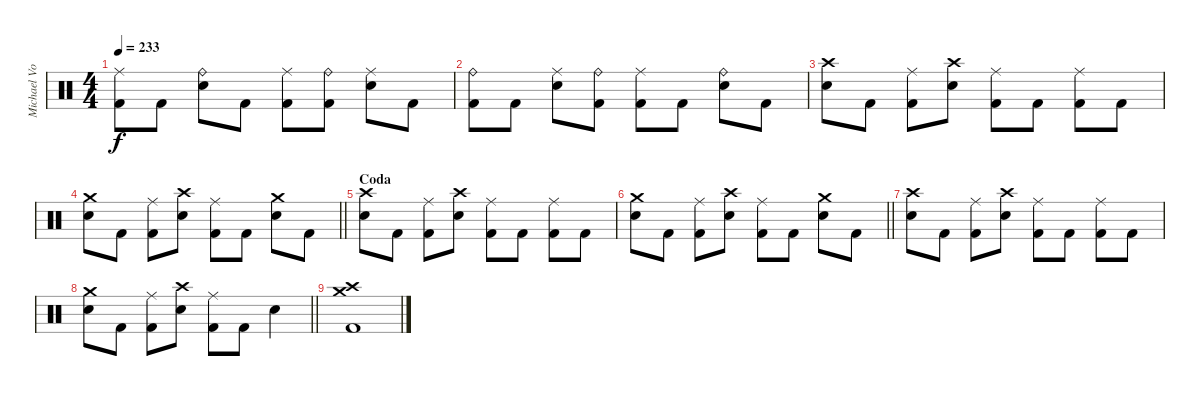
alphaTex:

\track ("Michael Von Knorring" "Michael Vo") {instrument percussion}
\staff {score}
\articulation defaults
\ts (4 4)
\tempo 233
\clef neutral
\ks c
("Ride (middle)" "Kick (hit) 2").8{dy f} "Kick (hit) 2".8 ("Ride (bell)" "Snare (hit) 2").8 "Kick (hit) 2".8 ("Ride (middle)" "Kick (hit) 2").8 ("Ride (bell)" "Kick (hit) 2").8 ("Ride (middle)" "Snare (hit) 2").8 "Kick (hit) 2".8 |
("Ride (bell)" "Kick (hit) 2").8 "Kick (hit) 2".8 ("Ride (middle)" "Snare (hit) 2").8 ("Ride (bell)" "Kick (hit) 2").8 ("Ride (middle)" "Kick (hit) 2").8 "Kick (hit) 2".8 ("Ride (bell)" "Snare (hit) 2").8 "Kick (hit) 2".8 |
("Crash high (hit)" "Snare (hit) 2").8 "Kick (hit) 2".8 ("Ride (middle)" "Kick (hit) 2").8 ("Crash high (hit)" "Snare (hit) 2").8 ("Ride (middle)" "Kick (hit) 2").8 "Kick (hit) 2".8 ("Ride (middle)" "Kick (hit) 2").8 "Kick (hit) 2".8 |
\barLineRight lightlight
("Crash medium (hit)" "Snare (hit) 2").8 "Kick (hit) 2".8 ("Ride (middle)" "Kick (hit) 2").8 ("Crash high (hit)" "Snare (hit) 2").8 ("Ride (middle)" "Kick (hit) 2").8 "Kick (hit) 2".8 ("Crash medium (hit)" "Snare (hit) 2").8 "Kick (hit) 2".8 |
\section ("" "Coda")
("Crash high (hit)" "Snare (hit) 2").8 "Kick (hit) 2".8 ("Ride (middle)" "Kick (hit) 2").8 ("Crash high (hit)" "Snare (hit) 2").8 ("Ride (middle)" "Kick (hit) 2").8 "Kick (hit) 2".8 ("Ride (middle)" "Kick (hit) 2").8 "Kick (hit) 2".8 |
\barLineRight lightlight
("Crash medium (hit)" "Snare (hit) 2").8 "Kick (hit) 2".8 ("Ride (middle)" "Kick (hit) 2").8 ("Crash high (hit)" "Snare (hit) 2").8 ("Ride (middle)" "Kick (hit) 2").8 "Kick (hit) 2".8 ("Crash medium (hit)" "Snare (hit) 2").8 "Kick (hit) 2".8 |
("Crash high (hit)" "Snare (hit) 2").8 "Kick (hit) 2".8 ("Ride (middle)" "Kick (hit) 2").8 ("Crash high (hit)" "Snare (hit) 2").8 ("Ride (middle)" "Kick (hit) 2").8 "Kick (hit) 2".8 ("Ride (middle)" "Kick (hit) 2").8 "Kick (hit) 2".8 |
\barLineRight lightlight
("Crash medium (hit)" "Snare (hit) 2").8 "Kick (hit) 2".8 ("Ride (middle)" "Kick (hit) 2").8 ("Crash high (hit)" "Snare (hit) 2").8 ("Ride (middle)" "Kick (hit) 2").8 "Kick (hit) 2".8 "Snare (hit) 2".4 |
("Crash high (hit)" "Crash medium (hit)" "Kick (hit) 2").1
